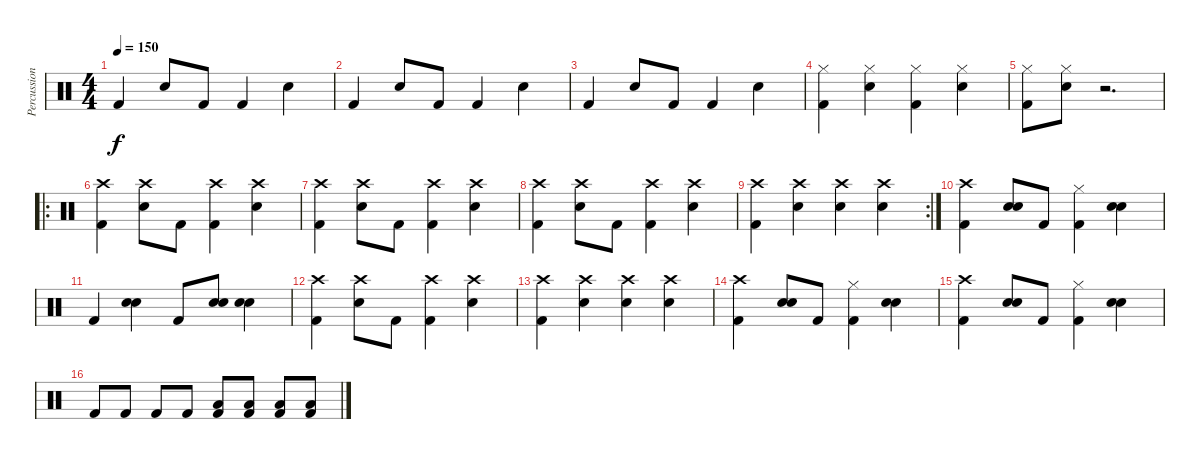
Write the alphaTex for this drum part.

\track ("Percussions" "Percussion") {instrument percussion}
\staff {score}
\articulation defaults
\ts (4 4)
\tempo 150
\clef neutral
\ks c "Kick (hit) 2".4{dy f} "Snare (hit) 2".8 "Kick (hit) 2".8 "Kick (hit) 2".4 "Snare (hit) 2".4
|
"Kick (hit) 2".4 "Snare (hit) 2".8 "Kick (hit) 2".8 "Kick (hit) 2".4 "Snare (hit) 2".4 |
"Kick (hit) 2".4 "Snare (hit) 2".8 "Kick (hit) 2".8 "Kick (hit) 2".4 "Snare (hit) 2".4 |
("Kick (hit) 2" "Hi-Hat (closed)").4 ("Snare (hit) 2" "Hi-Hat (closed)").4 ("Kick (hit) 2" "Hi-Hat (closed)").4 ("Snare (hit) 2" "Hi-Hat (closed)").4 |
("Kick (hit) 2" "Hi-Hat (closed)").8 ("Snare (hit) 2" "Hi-Hat (closed)").8 r.2{d} |
\ro
("Kick (hit) 2" "Crash high (hit)").4 ("Snare (hit) 2" "Crash high (hit)").8 "Kick (hit) 2".8 ("Kick (hit) 2" "Crash high (hit)").4 ("Snare (hit) 2" "Crash high (hit)").4 |
("Kick (hit) 2" "Crash high (hit)").4 ("Snare (hit) 2" "Crash high (hit)").8 "Kick (hit) 2".8 ("Kick (hit) 2" "Crash high (hit)").4 ("Snare (hit) 2" "Crash high (hit)").4 |
("Kick (hit) 2" "Crash high (hit)").4 ("Snare (hit) 2" "Crash high (hit)").8 "Kick (hit) 2".8 ("Kick (hit) 2" "Crash high (hit)").4 ("Snare (hit) 2" "Crash high (hit)").4 |
\rc 2
("Kick (hit) 2" "Crash high (hit)").4 ("Snare (hit) 2" "Crash high (hit)").4 ("Snare (hit) 2" "Crash high (hit)").4 ("Snare (hit) 2" "Crash high (hit)").4 |
("Kick (hit) 2" "Crash high (hit)").4 ("Snare (hit) 2" "Snare (hit) 2").8 "Kick (hit) 2".8 ("Kick (hit) 2" "Hi-Hat (closed)").4 ("Snare (hit) 2" "Snare (hit) 2").4 |
"Kick (hit) 2".4 ("Snare (hit) 2" "Snare (hit) 2").4 "Kick (hit) 2".8 ("Snare (hit) 2" "Snare (hit) 2").8 ("Snare (hit) 2" "Snare (hit) 2").4 |
("Kick (hit) 2" "Crash high (hit)").4 ("Snare (hit) 2" "Crash high (hit)").8 "Kick (hit) 2".8 ("Kick (hit) 2" "Crash high (hit)").4 ("Snare (hit) 2" "Crash high (hit)").4 |
("Kick (hit) 2" "Crash high (hit)").4 ("Snare (hit) 2" "Crash high (hit)").4 ("Snare (hit) 2" "Crash high (hit)").4 ("Snare (hit) 2" "Crash high (hit)").4 |
("Kick (hit) 2" "Crash high (hit)").4 ("Snare (hit) 2" "Snare (hit) 2").8 "Kick (hit) 2".8 ("Kick (hit) 2" "Hi-Hat (closed)").4 ("Snare (hit) 2" "Snare (hit) 2").4 |
("Kick (hit) 2" "Crash high (hit)").4 ("Snare (hit) 2" "Snare (hit) 2").8 "Kick (hit) 2".8 ("Kick (hit) 2" "Hi-Hat (closed)").4 ("Snare (hit) 2" "Snare (hit) 2").4 |
"Kick (hit) 2".8 "Kick (hit) 2".8 "Kick (hit) 2".8 "Kick (hit) 2".8 ("Kick (hit) 2" "Low Floor Tom (hit)").8 ("Kick (hit) 2" "Low Floor Tom (hit)").8 ("Kick (hit) 2" "Low Floor Tom (hit)").8 ("Kick (hit) 2" "Low Floor Tom (hit)").8
